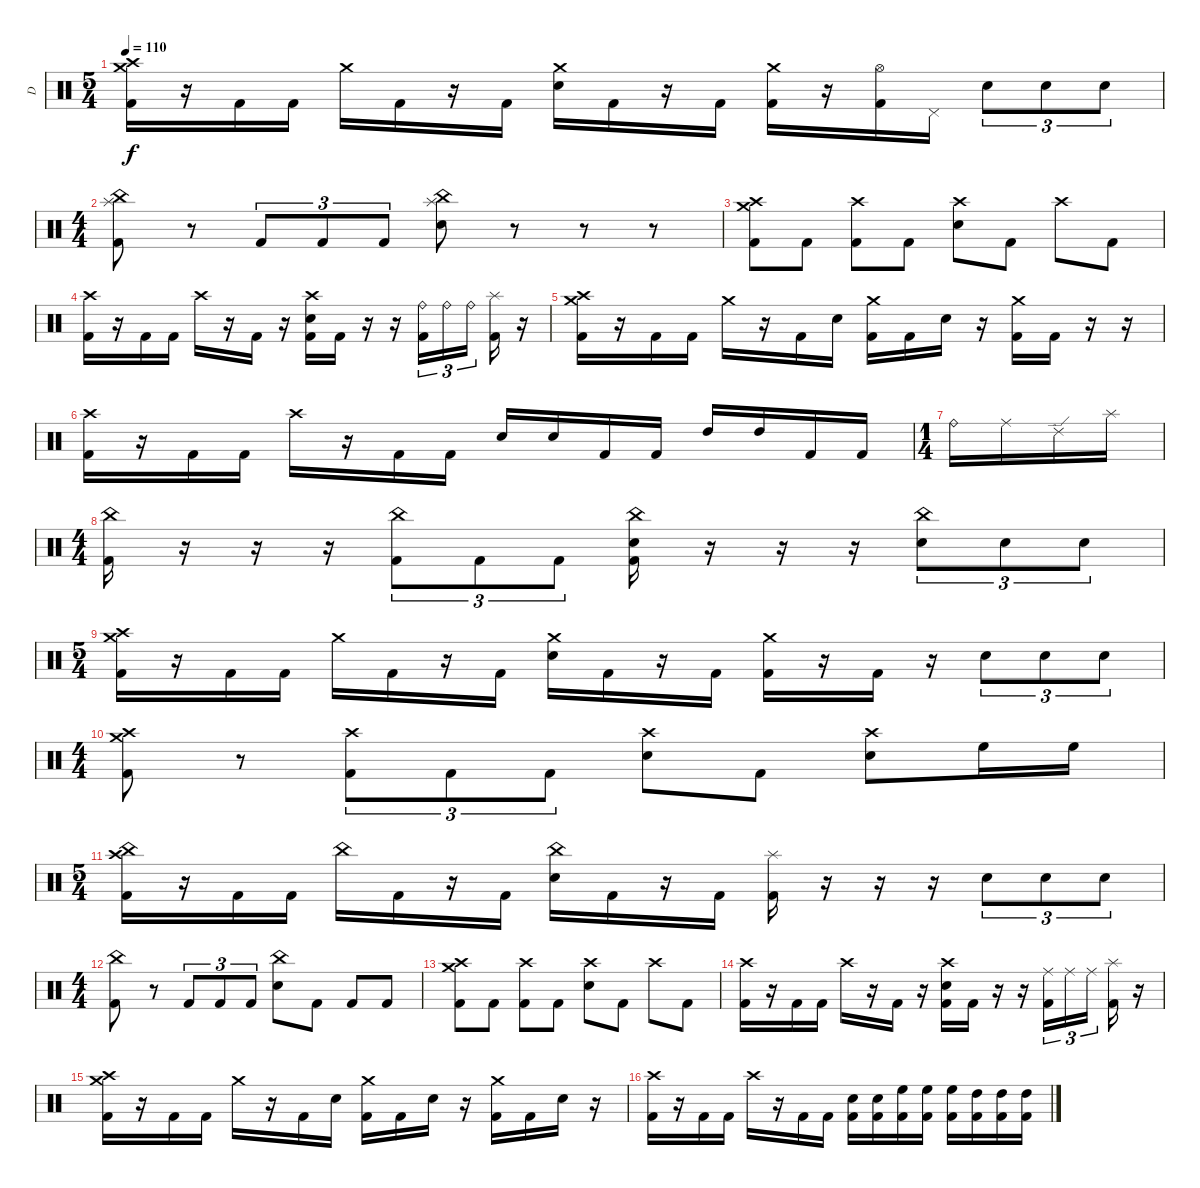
\track ("D" "D") {instrument percussion}
\staff {score}
\articulation defaults
\ts (5 4)
\tempo 110
\clef neutral
\ks c
("Crash medium (hit)" "Crash high (hit)" "Kick (hit) 2").16{dy f} r.16 "Kick (hit) 2".16 "Kick (hit) 2".16 "Crash medium (hit)".16 "Kick (hit) 2".16 r.16 "Kick (hit) 2".16 ("Crash medium (hit)" "Electric Snare (hit)").16 "Kick (hit) 2".16 r.16 "Kick (hit) 2".16 ("Crash medium (hit)" "Kick (hit) 2").16 r.16 ("Hi-Hat (open)" "Kick (hit) 2").16 "Pedal Hi-Hat (hit)".16 "Electric Snare (hit)".8{tu (3 2)} "Electric Snare (hit)".8{tu (3 2)} "Electric Snare (hit)".8{tu (3 2)} |
\ts (4 4)
("China (hit)" "Splash (hit)" "Kick (hit) 2").8 r.8 "Kick (hit) 2".8{tu (3 2)} "Kick (hit) 2".8{tu (3 2)} "Kick (hit) 2".8{tu (3 2)} ("China (hit)" "Electric Snare (hit)" "Splash (hit)").8 r.8{volume 0} r.8 r.8 |
("Crash high (hit)" "Crash medium (hit)" "Kick (hit) 2").8{volume 16} "Kick (hit) 2".8 ("Crash high (hit)" "Kick (hit) 2").8 "Kick (hit) 2".8 ("Crash high (hit)" "Electric Snare (hit)").8 "Kick (hit) 2".8 "Crash high (hit)".8 "Kick (hit) 2".8 |
("Crash high (hit)" "Kick (hit) 2").16 r.16 "Kick (hit) 2".16 "Kick (hit) 2".16 "Crash high (hit)".16 r.16 "Kick (hit) 2".16 r.16 ("Crash high (hit)" "Electric Snare (hit)" "Kick (hit) 2").16 "Kick (hit) 2".16 r.16 r.16 ("Ride (bell)" "Kick (hit) 2").16{tu (3 2)} "Ride (bell)".16{tu (3 2)} "Ride (bell)".16{tu (3 2) beam splitsecondary} ("Splash (hit)" "Kick (hit) 2").16 r.16 |
("Crash high (hit)" "Crash medium (hit)" "Kick (hit) 2").16 r.16 "Kick (hit) 2".16 "Kick (hit) 2".16 "Crash medium (hit)".16 r.16 "Kick (hit) 2".16 "Electric Snare (hit)".16 ("Crash medium (hit)" "Kick (hit) 2").16 "Kick (hit) 2".16 "Electric Snare (hit)".16 r.16 ("Crash medium (hit)" "Kick (hit) 2").16 "Kick (hit) 2".16 r.16 r.16 |
("Crash high (hit)" "Kick (hit) 2").16 r.16 "Kick (hit) 2".16 "Kick (hit) 2".16 "Crash high (hit)".16 r.16 "Kick (hit) 2".16 "Kick (hit) 2".16 "Electric Snare (hit)".16 "Electric Snare (hit)".16 "Kick (hit) 2".16 "Kick (hit) 2".16 "High Tom (hit)".16 "High Tom (hit)".16 "Kick (hit) 2".16 "Kick (hit) 2".16 |
\ts (1 4)
"Ride (bell)".16 "Ride (middle)".16 "Ride (edge) 2".16 "Splash (hit)".16 |
\ts (4 4)
("China (hit)" "Kick (hit) 2").16 r.16 r.16 r.16 ("China (hit)" "Kick (hit) 2").8{tu (3 2)} "Kick (hit) 2".8{tu (3 2)} "Kick (hit) 2".8{tu (3 2)} ("China (hit)" "Electric Snare (hit)" "Kick (hit) 2").16 r.16 r.16 r.16 ("China (hit)" "Electric Snare (hit)").8{tu (3 2)} "Electric Snare (hit)".8{tu (3 2)} "Electric Snare (hit)".8{tu (3 2)} |
\ts (5 4)
("Crash medium (hit)" "Crash high (hit)" "Kick (hit) 2").16 r.16 "Kick (hit) 2".16 "Kick (hit) 2".16 "Crash medium (hit)".16 "Kick (hit) 2".16 r.16 "Kick (hit) 2".16 ("Crash medium (hit)" "Electric Snare (hit)").16 "Kick (hit) 2".16 r.16 "Kick (hit) 2".16 ("Crash medium (hit)" "Kick (hit) 2").16 r.16 "Kick (hit) 2".16 r.16 "Electric Snare (hit)".8{tu (3 2)} "Electric Snare (hit)".8{tu (3 2)} "Electric Snare (hit)".8{tu (3 2)} |
\ts (4 4)
("Crash medium (hit)" "Crash high (hit)" "Kick (hit) 2").8 r.8 ("Crash high (hit)" "Kick (hit) 2").8{tu (3 2)} "Kick (hit) 2".8{tu (3 2)} "Kick (hit) 2".8{tu (3 2)} ("Crash high (hit)" "Electric Snare (hit)").8 "Kick (hit) 2".8 ("Crash high (hit)" "Electric Snare (hit)").8 "High Floor Tom (hit)".16 "High Floor Tom (hit)".16 |
\ts (5 4)
("China (hit)" "Crash high (hit)" "Kick (hit) 2").16 r.16 "Kick (hit) 2".16 "Kick (hit) 2".16 "China (hit)".16 "Kick (hit) 2".16 r.16 "Kick (hit) 2".16 ("China (hit)" "Electric Snare (hit)").16 "Kick (hit) 2".16 r.16 "Kick (hit) 2".16 ("Splash (hit)" "Kick (hit) 2").16 r.16 r.16 r.16 "Electric Snare (hit)".8{tu (3 2)} "Electric Snare (hit)".8{tu (3 2)} "Electric Snare (hit)".8{tu (3 2)} |
\ts (4 4)
("China (hit)" "Kick (hit) 2").8 r.8 "Kick (hit) 2".8{tu (3 2)} "Kick (hit) 2".8{tu (3 2)} "Kick (hit) 2".8{tu (3 2)} ("China (hit)" "Electric Snare (hit)").8 "Kick (hit) 2".8 "Kick (hit) 2".8 "Kick (hit) 2".8 |
("Crash high (hit)" "Crash medium (hit)" "Kick (hit) 2").8 "Kick (hit) 2".8 ("Crash high (hit)" "Kick (hit) 2").8 "Kick (hit) 2".8 ("Crash high (hit)" "Electric Snare (hit)").8 "Kick (hit) 2".8 "Crash high (hit)".8 "Kick (hit) 2".8 |
("Crash high (hit)" "Kick (hit) 2").16 r.16 "Kick (hit) 2".16 "Kick (hit) 2".16 "Crash high (hit)".16 r.16 "Kick (hit) 2".16 r.16 ("Crash high (hit)" "Electric Snare (hit)" "Kick (hit) 2").16 "Kick (hit) 2".16 r.16 r.16 ("Ride (middle)" "Kick (hit) 2").16{tu (3 2)} "Ride (middle)".16{tu (3 2)} "Ride (middle)".16{tu (3 2) beam splitsecondary} ("Splash (hit)" "Kick (hit) 2").16 r.16 |
("Crash high (hit)" "Crash medium (hit)" "Kick (hit) 2").16 r.16 "Kick (hit) 2".16 "Kick (hit) 2".16 "Crash medium (hit)".16 r.16 "Kick (hit) 2".16 "Electric Snare (hit)".16 ("Crash medium (hit)" "Kick (hit) 2").16 "Kick (hit) 2".16 "Electric Snare (hit)".16 r.16 ("Crash medium (hit)" "Kick (hit) 2").16 "Kick (hit) 2".16 "Electric Snare (hit)".16 r.16 |
("Crash high (hit)" "Kick (hit) 2").16 r.16 "Kick (hit) 2".16 "Kick (hit) 2".16 "Crash high (hit)".16 r.16 "Kick (hit) 2".16 "Kick (hit) 2".16 ("Electric Snare (hit)" "Kick (hit) 2").16 ("Electric Snare (hit)" "Kick (hit) 2").16 ("High Floor Tom (hit)" "Kick (hit) 2").16 ("High Floor Tom (hit)" "Kick (hit) 2").16 ("High Floor Tom (hit)" "Kick (hit) 2").16 ("High Tom (hit)" "Kick (hit) 2").16 ("High Tom (hit)" "Kick (hit) 2").16 ("High Tom (hit)" "Kick (hit) 2").16
